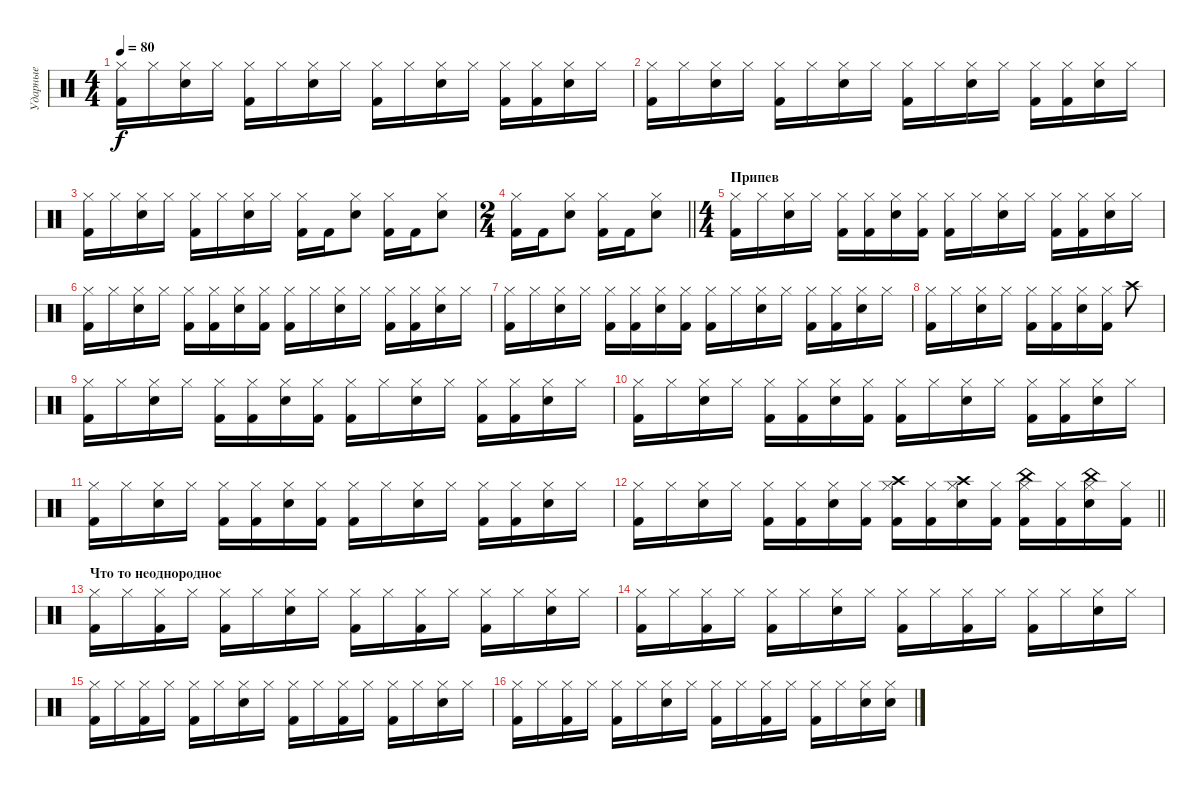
\track ("Ударные" "Ударные") {instrument percussion}
\staff {score}
\articulation defaults
\ts (4 4)
\tempo 80
\clef neutral
\ks c
("Hi-Hat (closed)" "Kick (hit) 2").16{dy f} "Hi-Hat (closed)".16 ("Hi-Hat (closed)" "Electric Snare (hit)").16 "Hi-Hat (closed)".16 ("Hi-Hat (closed)" "Kick (hit) 2").16 "Hi-Hat (closed)".16 ("Hi-Hat (closed)" "Electric Snare (hit)").16 "Hi-Hat (closed)".16 ("Hi-Hat (closed)" "Kick (hit) 2").16 "Hi-Hat (closed)".16 ("Hi-Hat (closed)" "Electric Snare (hit)").16 "Hi-Hat (closed)".16 ("Hi-Hat (closed)" "Kick (hit) 2").16 ("Hi-Hat (closed)" "Kick (hit) 2").16 ("Hi-Hat (closed)" "Electric Snare (hit)").16 "Hi-Hat (closed)".16 |
("Hi-Hat (closed)" "Kick (hit) 2").16 "Hi-Hat (closed)".16 ("Hi-Hat (closed)" "Electric Snare (hit)").16 "Hi-Hat (closed)".16 ("Hi-Hat (closed)" "Kick (hit) 2").16 "Hi-Hat (closed)".16 ("Hi-Hat (closed)" "Electric Snare (hit)").16 "Hi-Hat (closed)".16 ("Hi-Hat (closed)" "Kick (hit) 2").16 "Hi-Hat (closed)".16 ("Hi-Hat (closed)" "Electric Snare (hit)").16 "Hi-Hat (closed)".16 ("Hi-Hat (closed)" "Kick (hit) 2").16 ("Hi-Hat (closed)" "Kick (hit) 2").16 ("Hi-Hat (closed)" "Electric Snare (hit)").16 "Hi-Hat (closed)".16 |
("Hi-Hat (closed)" "Kick (hit) 2").16 "Hi-Hat (closed)".16 ("Hi-Hat (closed)" "Electric Snare (hit)").16 "Hi-Hat (closed)".16 ("Hi-Hat (closed)" "Kick (hit) 2").16 "Hi-Hat (closed)".16 ("Hi-Hat (closed)" "Electric Snare (hit)").16 "Hi-Hat (closed)".16 ("Hi-Hat (closed)" "Kick (hit) 2").16 "Kick (hit) 2".16 ("Electric Snare (hit)" "Hi-Hat (closed)").8 ("Hi-Hat (closed)" "Kick (hit) 2").16 "Kick (hit) 2".16 ("Electric Snare (hit)" "Hi-Hat (closed)").8 |
\ts (2 4)
\barLineRight lightlight
("Hi-Hat (closed)" "Kick (hit) 2").16 "Kick (hit) 2".16 ("Electric Snare (hit)" "Hi-Hat (closed)").8 ("Hi-Hat (closed)" "Kick (hit) 2").16 "Kick (hit) 2".16 ("Electric Snare (hit)" "Hi-Hat (closed)").8 |
\ts (4 4)
\section ("" "Припев ")
("Hi-Hat (closed)" "Kick (hit) 2").16 "Hi-Hat (closed)".16 ("Hi-Hat (closed)" "Electric Snare (hit)").16 "Hi-Hat (closed)".16 ("Hi-Hat (closed)" "Kick (hit) 2").16 ("Hi-Hat (closed)" "Kick (hit) 2").16 ("Hi-Hat (closed)" "Electric Snare (hit)").16 ("Hi-Hat (closed)" "Kick (hit) 2").16 ("Hi-Hat (closed)" "Kick (hit) 2").16 "Hi-Hat (closed)".16 ("Hi-Hat (closed)" "Electric Snare (hit)").16 "Hi-Hat (closed)".16 ("Hi-Hat (closed)" "Kick (hit) 2").16 ("Hi-Hat (closed)" "Kick (hit) 2").16 ("Hi-Hat (closed)" "Electric Snare (hit)").16 "Hi-Hat (closed)".16 |
("Hi-Hat (closed)" "Kick (hit) 2").16 "Hi-Hat (closed)".16 ("Hi-Hat (closed)" "Electric Snare (hit)").16 "Hi-Hat (closed)".16 ("Hi-Hat (closed)" "Kick (hit) 2").16 ("Hi-Hat (closed)" "Kick (hit) 2").16 ("Hi-Hat (closed)" "Electric Snare (hit)").16 ("Hi-Hat (closed)" "Kick (hit) 2").16 ("Hi-Hat (closed)" "Kick (hit) 2").16 "Hi-Hat (closed)".16 ("Hi-Hat (closed)" "Electric Snare (hit)").16 "Hi-Hat (closed)".16 ("Hi-Hat (closed)" "Kick (hit) 2").16 ("Hi-Hat (closed)" "Kick (hit) 2").16 ("Hi-Hat (closed)" "Electric Snare (hit)").16 "Hi-Hat (closed)".16 |
("Hi-Hat (closed)" "Kick (hit) 2").16 "Hi-Hat (closed)".16 ("Hi-Hat (closed)" "Electric Snare (hit)").16 "Hi-Hat (closed)".16 ("Hi-Hat (closed)" "Kick (hit) 2").16 ("Hi-Hat (closed)" "Kick (hit) 2").16 ("Hi-Hat (closed)" "Electric Snare (hit)").16 ("Hi-Hat (closed)" "Kick (hit) 2").16 ("Hi-Hat (closed)" "Kick (hit) 2").16 "Hi-Hat (closed)".16 ("Hi-Hat (closed)" "Electric Snare (hit)").16 "Hi-Hat (closed)".16 ("Hi-Hat (closed)" "Kick (hit) 2").16 ("Hi-Hat (closed)" "Kick (hit) 2").16 ("Hi-Hat (closed)" "Electric Snare (hit)").16 "Hi-Hat (closed)".16 |
("Hi-Hat (closed)" "Kick (hit) 2").16 "Hi-Hat (closed)".16 ("Hi-Hat (closed)" "Electric Snare (hit)").16 "Hi-Hat (closed)".16 ("Hi-Hat (closed)" "Kick (hit) 2").16 ("Hi-Hat (closed)" "Kick (hit) 2").16 ("Hi-Hat (closed)" "Electric Snare (hit)").16 ("Hi-Hat (closed)" "Kick (hit) 2").16 "Crash high (hit)".8 |
("Hi-Hat (closed)" "Kick (hit) 2").16 "Hi-Hat (closed)".16 ("Hi-Hat (closed)" "Electric Snare (hit)").16 "Hi-Hat (closed)".16 ("Hi-Hat (closed)" "Kick (hit) 2").16 ("Hi-Hat (closed)" "Kick (hit) 2").16 ("Hi-Hat (closed)" "Electric Snare (hit)").16 ("Hi-Hat (closed)" "Kick (hit) 2").16 ("Hi-Hat (closed)" "Kick (hit) 2").16 "Hi-Hat (closed)".16 ("Hi-Hat (closed)" "Electric Snare (hit)").16 "Hi-Hat (closed)".16 ("Hi-Hat (closed)" "Kick (hit) 2").16 ("Hi-Hat (closed)" "Kick (hit) 2").16 ("Hi-Hat (closed)" "Electric Snare (hit)").16 "Hi-Hat (closed)".16 |
("Hi-Hat (closed)" "Kick (hit) 2").16 "Hi-Hat (closed)".16 ("Hi-Hat (closed)" "Electric Snare (hit)").16 "Hi-Hat (closed)".16 ("Hi-Hat (closed)" "Kick (hit) 2").16 ("Hi-Hat (closed)" "Kick (hit) 2").16 ("Hi-Hat (closed)" "Electric Snare (hit)").16 ("Hi-Hat (closed)" "Kick (hit) 2").16 ("Hi-Hat (closed)" "Kick (hit) 2").16 "Hi-Hat (closed)".16 ("Hi-Hat (closed)" "Electric Snare (hit)").16 "Hi-Hat (closed)".16 ("Hi-Hat (closed)" "Kick (hit) 2").16 ("Hi-Hat (closed)" "Kick (hit) 2").16 ("Hi-Hat (closed)" "Electric Snare (hit)").16 "Hi-Hat (closed)".16 |
("Hi-Hat (closed)" "Kick (hit) 2").16 "Hi-Hat (closed)".16 ("Hi-Hat (closed)" "Electric Snare (hit)").16 "Hi-Hat (closed)".16 ("Hi-Hat (closed)" "Kick (hit) 2").16 ("Hi-Hat (closed)" "Kick (hit) 2").16 ("Hi-Hat (closed)" "Electric Snare (hit)").16 ("Hi-Hat (closed)" "Kick (hit) 2").16 ("Hi-Hat (closed)" "Kick (hit) 2").16 "Hi-Hat (closed)".16 ("Hi-Hat (closed)" "Electric Snare (hit)").16 "Hi-Hat (closed)".16 ("Hi-Hat (closed)" "Kick (hit) 2").16 ("Hi-Hat (closed)" "Kick (hit) 2").16 ("Hi-Hat (closed)" "Electric Snare (hit)").16 "Hi-Hat (closed)".16 |
\barLineRight lightlight
("Hi-Hat (closed)" "Kick (hit) 2").16 "Hi-Hat (closed)".16 ("Hi-Hat (closed)" "Electric Snare (hit)").16 "Hi-Hat (closed)".16 ("Hi-Hat (closed)" "Kick (hit) 2").16 ("Hi-Hat (closed)" "Kick (hit) 2").16 ("Hi-Hat (closed)" "Electric Snare (hit)").16 ("Hi-Hat (closed)" "Kick (hit) 2").16 ("Hi-Hat (closed)" "Kick (hit) 2" "Crash high (hit)").16 ("Hi-Hat (closed)" "Kick (hit) 2").16 ("Hi-Hat (closed)" "Electric Snare (hit)" "Crash high (hit)").16 ("Hi-Hat (closed)" "Kick (hit) 2").16 ("Hi-Hat (closed)" "Kick (hit) 2" "China (hit)").16 ("Hi-Hat (closed)" "Kick (hit) 2").16 ("Hi-Hat (closed)" "Electric Snare (hit)" "China (hit)").16 ("Hi-Hat (closed)" "Kick (hit) 2").16 |
\section ("" "Что то неоднородное")
("Hi-Hat (closed)" "Kick (hit) 2").16 "Hi-Hat (closed)".16 ("Hi-Hat (closed)" "Kick (hit) 2").16 "Hi-Hat (closed)".16 ("Hi-Hat (closed)" "Kick (hit) 2").16 "Hi-Hat (closed)".16 ("Snare (hit) 2" "Hi-Hat (closed)").16 "Hi-Hat (closed)".16 ("Hi-Hat (closed)" "Kick (hit) 2").16 "Hi-Hat (closed)".16 ("Hi-Hat (closed)" "Kick (hit) 2").16 "Hi-Hat (closed)".16 ("Hi-Hat (closed)" "Kick (hit) 2").16 "Hi-Hat (closed)".16 ("Snare (hit) 2" "Hi-Hat (closed)").16 "Hi-Hat (closed)".16 |
("Hi-Hat (closed)" "Kick (hit) 2").16 "Hi-Hat (closed)".16 ("Hi-Hat (closed)" "Kick (hit) 2").16 "Hi-Hat (closed)".16 ("Hi-Hat (closed)" "Kick (hit) 2").16 "Hi-Hat (closed)".16 ("Snare (hit) 2" "Hi-Hat (closed)").16 "Hi-Hat (closed)".16 ("Hi-Hat (closed)" "Kick (hit) 2").16 "Hi-Hat (closed)".16 ("Hi-Hat (closed)" "Kick (hit) 2").16 "Hi-Hat (closed)".16 ("Hi-Hat (closed)" "Kick (hit) 2").16 "Hi-Hat (closed)".16 ("Snare (hit) 2" "Hi-Hat (closed)").16 "Hi-Hat (closed)".16 |
("Hi-Hat (closed)" "Kick (hit) 2").16 "Hi-Hat (closed)".16 ("Hi-Hat (closed)" "Kick (hit) 2").16 "Hi-Hat (closed)".16 ("Hi-Hat (closed)" "Kick (hit) 2").16 "Hi-Hat (closed)".16 ("Snare (hit) 2" "Hi-Hat (closed)").16 "Hi-Hat (closed)".16 ("Hi-Hat (closed)" "Kick (hit) 2").16 "Hi-Hat (closed)".16 ("Hi-Hat (closed)" "Kick (hit) 2").16 "Hi-Hat (closed)".16 ("Hi-Hat (closed)" "Kick (hit) 2").16 "Hi-Hat (closed)".16 ("Snare (hit) 2" "Hi-Hat (closed)").16 "Hi-Hat (closed)".16 |
("Hi-Hat (closed)" "Kick (hit) 2").16 "Hi-Hat (closed)".16 ("Hi-Hat (closed)" "Kick (hit) 2").16 "Hi-Hat (closed)".16 ("Hi-Hat (closed)" "Kick (hit) 2").16 "Hi-Hat (closed)".16 ("Snare (hit) 2" "Hi-Hat (closed)").16 "Hi-Hat (closed)".16 ("Hi-Hat (closed)" "Kick (hit) 2").16 "Hi-Hat (closed)".16 ("Hi-Hat (closed)" "Kick (hit) 2").16 "Hi-Hat (closed)".16 ("Hi-Hat (closed)" "Kick (hit) 2").16 "Hi-Hat (closed)".16 ("Snare (hit) 2" "Hi-Hat (closed)").16 ("Hi-Hat (closed)" "Snare (hit) 2").16
